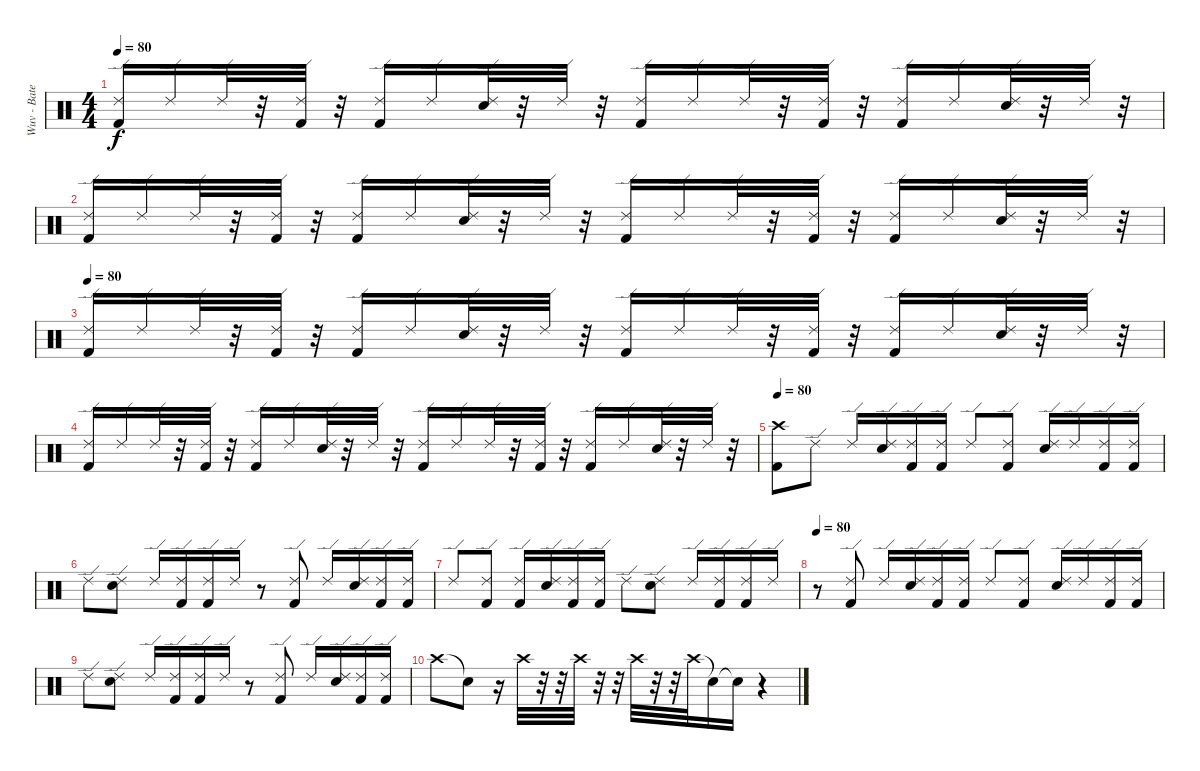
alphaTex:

\track ("Wuv - Bateria" "Wuv - Bate") {instrument percussion}
\staff {score}
\articulation defaults
\ts (4 4)
\tempo 80
\clef neutral
\ks c
("Ride (edge) 2" "Kick (hit) 2").16{dy f} "Ride (edge) 2".16 "Ride (edge) 2".32 r.32 ("Ride (edge) 2" "Kick (hit) 2").32 r.32 ("Ride (edge) 2" "Kick (hit) 2").16 "Ride (edge) 2".16 ("Ride (edge) 2" "Snare (hit) 2").32 r.32 "Ride (edge) 2".32 r.32 ("Ride (edge) 2" "Kick (hit) 2").16 "Ride (edge) 2".16 "Ride (edge) 2".32 r.32 ("Ride (edge) 2" "Kick (hit) 2").32 r.32 ("Ride (edge) 2" "Kick (hit) 2").16 "Ride (edge) 2".16 ("Ride (edge) 2" "Snare (hit) 2").32 r.32 "Ride (edge) 2".32 r.32 |
("Ride (edge) 2" "Kick (hit) 2").16 "Ride (edge) 2".16 "Ride (edge) 2".32 r.32 ("Ride (edge) 2" "Kick (hit) 2").32 r.32 ("Ride (edge) 2" "Kick (hit) 2").16 "Ride (edge) 2".16 ("Ride (edge) 2" "Snare (hit) 2").32 r.32 "Ride (edge) 2".32 r.32 ("Ride (edge) 2" "Kick (hit) 2").16 "Ride (edge) 2".16 "Ride (edge) 2".32 r.32 ("Ride (edge) 2" "Kick (hit) 2").32 r.32 ("Ride (edge) 2" "Kick (hit) 2").16 "Ride (edge) 2".16 ("Ride (edge) 2" "Snare (hit) 2").32 r.32 "Ride (edge) 2".32 r.32 |
\tempo 80
("Ride (edge) 2" "Kick (hit) 2").16 "Ride (edge) 2".16 "Ride (edge) 2".32 r.32 ("Ride (edge) 2" "Kick (hit) 2").32 r.32 ("Ride (edge) 2" "Kick (hit) 2").16 "Ride (edge) 2".16 ("Ride (edge) 2" "Snare (hit) 2").32 r.32 "Ride (edge) 2".32 r.32 ("Ride (edge) 2" "Kick (hit) 2").16 "Ride (edge) 2".16 "Ride (edge) 2".32 r.32 ("Ride (edge) 2" "Kick (hit) 2").32 r.32 ("Ride (edge) 2" "Kick (hit) 2").16 "Ride (edge) 2".16 ("Ride (edge) 2" "Snare (hit) 2").32 r.32 "Ride (edge) 2".32 r.32 |
("Ride (edge) 2" "Kick (hit) 2").16 "Ride (edge) 2".16 "Ride (edge) 2".32 r.32 ("Ride (edge) 2" "Kick (hit) 2").32 r.32 ("Ride (edge) 2" "Kick (hit) 2").16 "Ride (edge) 2".16 ("Ride (edge) 2" "Snare (hit) 2").32 r.32 "Ride (edge) 2".32 r.32 ("Ride (edge) 2" "Kick (hit) 2").16 "Ride (edge) 2".16 "Ride (edge) 2".32 r.32 ("Ride (edge) 2" "Kick (hit) 2").32 r.32 ("Ride (edge) 2" "Kick (hit) 2").16 "Ride (edge) 2".16 ("Ride (edge) 2" "Snare (hit) 2").32 r.32 "Ride (edge) 2".32 r.32 |
\tempo 80
("Crash high (hit)" "Kick (hit) 2").8 "Ride (edge) 2".8 "Ride (edge) 2".16 ("Ride (edge) 2" "Snare (hit) 2").16 ("Ride (edge) 2" "Kick (hit) 2").16 ("Ride (edge) 2" "Kick (hit) 2").16 "Ride (edge) 2".8 ("Ride (edge) 2" "Kick (hit) 2").8 ("Ride (edge) 2" "Snare (hit) 2").16 "Ride (edge) 2".16 ("Ride (edge) 2" "Kick (hit) 2").16 ("Ride (edge) 2" "Kick (hit) 2").16 |
"Ride (edge) 2".8 ("Ride (edge) 2" "Snare (hit) 2").8 "Ride (edge) 2".16 ("Ride (edge) 2" "Kick (hit) 2").16 ("Ride (edge) 2" "Kick (hit) 2").16 "Ride (edge) 2".16 r.8 ("Ride (edge) 2" "Kick (hit) 2").8 "Ride (edge) 2".16 ("Ride (edge) 2" "Snare (hit) 2").16 ("Ride (edge) 2" "Kick (hit) 2").16 ("Ride (edge) 2" "Kick (hit) 2").16 |
"Ride (edge) 2".8 ("Ride (edge) 2" "Kick (hit) 2").8 ("Ride (edge) 2" "Kick (hit) 2").16 ("Ride (edge) 2" "Snare (hit) 2").16 ("Ride (edge) 2" "Kick (hit) 2").16 ("Ride (edge) 2" "Kick (hit) 2").16 "Ride (edge) 2".8 ("Ride (edge) 2" "Snare (hit) 2").8 "Ride (edge) 2".16 ("Ride (edge) 2" "Kick (hit) 2").16 ("Ride (edge) 2" "Kick (hit) 2").16 "Ride (edge) 2".16 |
\tempo 80
r.8 ("Ride (edge) 2" "Kick (hit) 2").8 "Ride (edge) 2".16 ("Ride (edge) 2" "Snare (hit) 2").16 ("Ride (edge) 2" "Kick (hit) 2").16 ("Ride (edge) 2" "Kick (hit) 2").16 "Ride (edge) 2".8 ("Ride (edge) 2" "Kick (hit) 2").8 ("Ride (edge) 2" "Snare (hit) 2").16 "Ride (edge) 2".16 ("Ride (edge) 2" "Kick (hit) 2").16 ("Ride (edge) 2" "Kick (hit) 2").16 |
"Ride (edge) 2".8 ("Ride (edge) 2" "Snare (hit) 2").8 "Ride (edge) 2".16 ("Ride (edge) 2" "Kick (hit) 2").16 ("Ride (edge) 2" "Kick (hit) 2").16 "Ride (edge) 2".16 r.8 ("Ride (edge) 2" "Kick (hit) 2").8 "Ride (edge) 2".16 ("Ride (edge) 2" "Snare (hit) 2").16 ("Ride (edge) 2" "Kick (hit) 2").16 ("Ride (edge) 2" "Kick (hit) 2").16 |
"Crash high (hit)".8 "Snare (hit)"{t}.8 r.16 "Crash high (hit)".32 r.32 r.32 "Crash high (hit)".32 r.32 r.32 "Crash high (hit)".32 r.32 r.32 "Crash high (hit)".32 "Snare (hit)"{t}.16 "Snare (hit)"{t}.16 r.4
